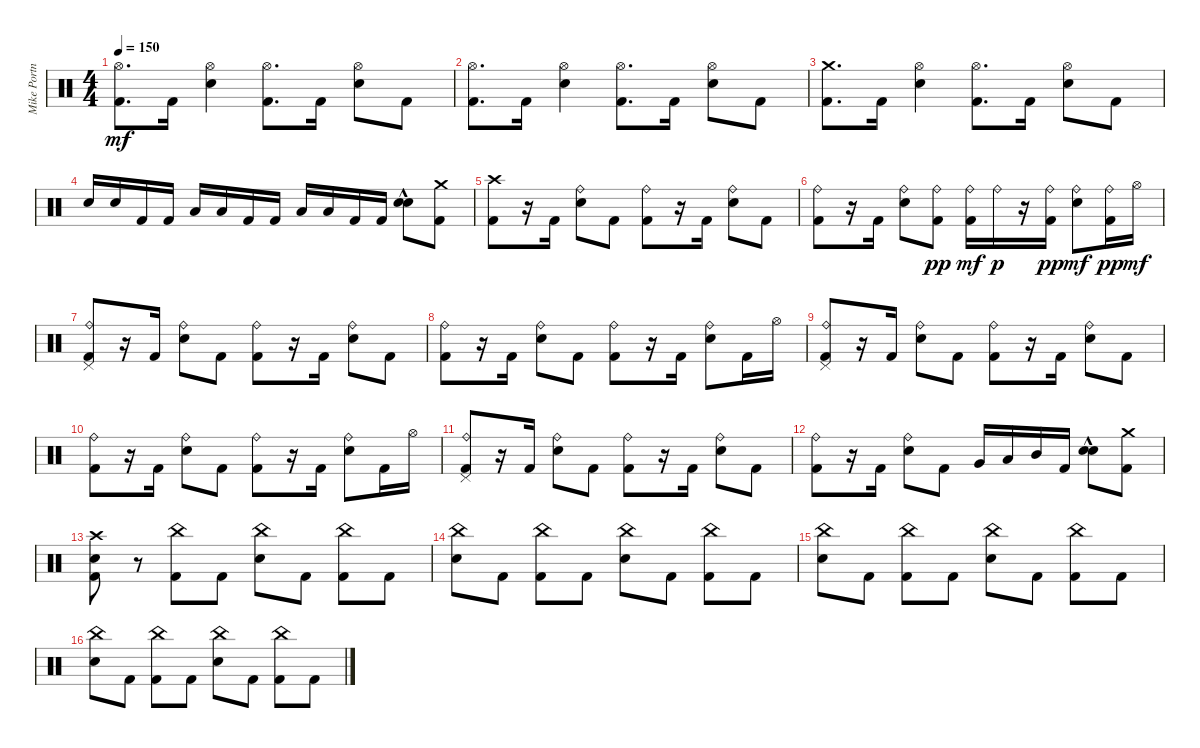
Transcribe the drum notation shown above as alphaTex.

\track ("Mike Portnoy: Drums" "Mike Portn") {instrument percussion}
\staff {score}
\articulation defaults
\ts (4 4)
\tempo 150
\clef neutral
\ks c
("Kick (hit) 2" "Hi-Hat (open)").8{d dy mf} "Kick (hit) 2".16 ("Electric Snare (hit)" "Hi-Hat (open)").4 ("Kick (hit) 2" "Hi-Hat (open)").8{d} "Kick (hit) 2".16 ("Electric Snare (hit)" "Hi-Hat (open)").8 "Kick (hit) 2".8 |
("Kick (hit) 2" "Hi-Hat (open)").8{d} "Kick (hit) 2".16 ("Electric Snare (hit)" "Hi-Hat (open)").4 ("Kick (hit) 2" "Hi-Hat (open)").8{d} "Kick (hit) 2".16 ("Electric Snare (hit)" "Hi-Hat (open)").8 "Kick (hit) 2".8 |
("Kick (hit) 2" "Crash medium (hit)").8{d} "Kick (hit) 2".16 ("Electric Snare (hit)" "Hi-Hat (open)").4 ("Kick (hit) 2" "Hi-Hat (open)").8{d} "Kick (hit) 2".16 ("Electric Snare (hit)" "Hi-Hat (open)").8 "Kick (hit) 2".8 |
"Electric Snare (hit)".16 "Electric Snare (hit)".16 "Kick (hit) 2".16 "Kick (hit) 2".16 "Low Tom (hit)".16 "Low Tom (hit)".16 "Kick (hit) 2".16 "Kick (hit) 2".16 "Low Floor Tom (hit)".16 "Low Floor Tom (hit)".16 "Kick (hit) 2".16 "Kick (hit) 2".16 ("Electric Snare (hit)" "Electric Snare (hit)"{hac}).8 ("Kick (hit) 2" "Crash medium (hit)").8 |
("Kick (hit) 2" "Crash high (hit)").8 r.16 "Kick (hit) 2".16 ("Electric Snare (hit)" "Ride (bell)").8 "Kick (hit) 2".8 ("Kick (hit) 2" "Ride (bell)").8 r.16 "Kick (hit) 2".16 ("Electric Snare (hit)" "Ride (bell)").8 "Kick (hit) 2".8 |
("Kick (hit) 2" "Ride (bell)").8 r.16 "Kick (hit) 2".16 ("Electric Snare (hit)" "Ride (bell)").8 ("Kick (hit) 2" "Ride (bell)").8{dy pp} ("Kick (hit) 2" "Ride (bell)").16{dy mf} "Ride (bell)".16{dy p} r.16 ("Kick (hit) 2" "Ride (bell)").16{dy pp} ("Electric Snare (hit)" "Ride (bell)").8{dy mf} ("Kick (hit) 2" "Ride (bell)").16{dy pp} "Hi-Hat (open)".16{dy mf} |
("Kick (hit) 2" "Pedal Hi-Hat (hit)" "Ride (bell)").8 r.16 "Kick (hit) 2".16 ("Electric Snare (hit)" "Ride (bell)").8 "Kick (hit) 2".8 ("Kick (hit) 2" "Ride (bell)").8 r.16 "Kick (hit) 2".16 ("Electric Snare (hit)" "Ride (bell)").8 "Kick (hit) 2".8 |
("Kick (hit) 2" "Ride (bell)").8 r.16 "Kick (hit) 2".16 ("Electric Snare (hit)" "Ride (bell)").8 "Kick (hit) 2".8 ("Kick (hit) 2" "Ride (bell)").8 r.16 "Kick (hit) 2".16 ("Electric Snare (hit)" "Ride (bell)").8 "Kick (hit) 2".16 "Hi-Hat (open)".16 |
("Kick (hit) 2" "Pedal Hi-Hat (hit)" "Ride (bell)").8 r.16 "Kick (hit) 2".16 ("Electric Snare (hit)" "Ride (bell)").8 "Kick (hit) 2".8 ("Kick (hit) 2" "Ride (bell)").8 r.16 "Kick (hit) 2".16 ("Electric Snare (hit)" "Ride (bell)").8 "Kick (hit) 2".8 |
("Kick (hit) 2" "Ride (bell)").8 r.16 "Kick (hit) 2".16 ("Electric Snare (hit)" "Ride (bell)").8 "Kick (hit) 2".8 ("Kick (hit) 2" "Ride (bell)").8 r.16 "Kick (hit) 2".16 ("Electric Snare (hit)" "Ride (bell)").8 "Kick (hit) 2".16 "Hi-Hat (open)".16 |
("Kick (hit) 2" "Pedal Hi-Hat (hit)" "Ride (bell)").8 r.16 "Kick (hit) 2".16 ("Electric Snare (hit)" "Ride (bell)").8 "Kick (hit) 2".8 ("Kick (hit) 2" "Ride (bell)").8 r.16 "Kick (hit) 2".16 ("Electric Snare (hit)" "Ride (bell)").8 "Kick (hit) 2".8 |
("Kick (hit) 2" "Ride (bell)").8 r.16 "Kick (hit) 2".16 ("Electric Snare (hit)" "Ride (bell)").8 "Kick (hit) 2".8 "Very Low Tom (hit)".16 "Low Tom (hit)".16 "Mid Tom (hit)".16 "Kick (hit) 2".16 ("Electric Snare (hit)" "Electric Snare (hit)"{hac}).8 ("Kick (hit) 2" "Crash medium (hit)").8 |
("Kick (hit) 2" "Electric Snare (hit)" "Crash high (hit)").8 r.8 ("Kick (hit) 2" "China (hit)").8 "Kick (hit) 2".8 ("Electric Snare (hit)" "China (hit)").8 "Kick (hit) 2".8 ("Kick (hit) 2" "China (hit)").8 "Kick (hit) 2".8 |
("Electric Snare (hit)" "China (hit)").8 "Kick (hit) 2".8 ("Kick (hit) 2" "China (hit)").8 "Kick (hit) 2".8 ("Electric Snare (hit)" "China (hit)").8 "Kick (hit) 2".8 ("Kick (hit) 2" "China (hit)").8 "Kick (hit) 2".8 |
("Electric Snare (hit)" "China (hit)").8 "Kick (hit) 2".8 ("Kick (hit) 2" "China (hit)").8 "Kick (hit) 2".8 ("Electric Snare (hit)" "China (hit)").8 "Kick (hit) 2".8 ("Kick (hit) 2" "China (hit)").8 "Kick (hit) 2".8 |
("Electric Snare (hit)" "China (hit)").8 "Kick (hit) 2".8 ("Kick (hit) 2" "China (hit)").8 "Kick (hit) 2".8 ("Electric Snare (hit)" "China (hit)").8 "Kick (hit) 2".8 ("Kick (hit) 2" "China (hit)").8 "Kick (hit) 2".8
